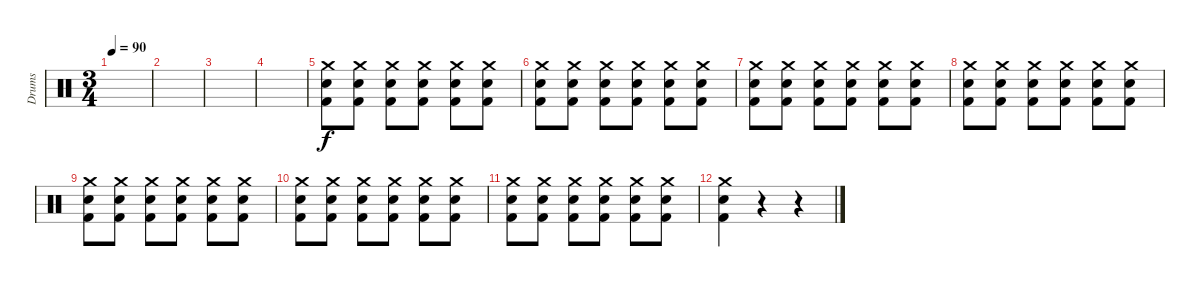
\track ("Drums" "Drums") {instrument percussion}
\staff {score}
\articulation defaults
\ts (3 4)
\tempo 90
\clef neutral
\ks c
|
|
|
|
("Electric Snare (hit)" "Kick (hit) 2" "Crash medium (hit)").8{volume 7} ("Electric Snare (hit)" "Kick (hit) 2" "Crash medium (hit)").8{volume 13} ("Electric Snare (hit)" "Kick (hit) 2" "Crash medium (hit)").8 ("Electric Snare (hit)" "Kick (hit) 2" "Crash medium (hit)").8 ("Electric Snare (hit)" "Kick (hit) 2" "Crash medium (hit)").8 ("Electric Snare (hit)" "Kick (hit) 2" "Crash medium (hit)").8 |
("Electric Snare (hit)" "Kick (hit) 2" "Crash medium (hit)").8 ("Electric Snare (hit)" "Kick (hit) 2" "Crash medium (hit)").8 ("Electric Snare (hit)" "Kick (hit) 2" "Crash medium (hit)").8 ("Electric Snare (hit)" "Kick (hit) 2" "Crash medium (hit)").8 ("Electric Snare (hit)" "Kick (hit) 2" "Crash medium (hit)").8 ("Electric Snare (hit)" "Kick (hit) 2" "Crash medium (hit)").8 |
("Electric Snare (hit)" "Kick (hit) 2" "Crash medium (hit)").8 ("Electric Snare (hit)" "Kick (hit) 2" "Crash medium (hit)").8 ("Electric Snare (hit)" "Kick (hit) 2" "Crash medium (hit)").8 ("Electric Snare (hit)" "Kick (hit) 2" "Crash medium (hit)").8 ("Electric Snare (hit)" "Kick (hit) 2" "Crash medium (hit)").8 ("Electric Snare (hit)" "Kick (hit) 2" "Crash medium (hit)").8 |
("Electric Snare (hit)" "Kick (hit) 2" "Crash medium (hit)").8 ("Electric Snare (hit)" "Kick (hit) 2" "Crash medium (hit)").8 ("Electric Snare (hit)" "Kick (hit) 2" "Crash medium (hit)").8 ("Electric Snare (hit)" "Kick (hit) 2" "Crash medium (hit)").8 ("Electric Snare (hit)" "Kick (hit) 2" "Crash medium (hit)").8 ("Electric Snare (hit)" "Kick (hit) 2" "Crash medium (hit)").8 |
("Electric Snare (hit)" "Kick (hit) 2" "Crash medium (hit)").8 ("Electric Snare (hit)" "Kick (hit) 2" "Crash medium (hit)").8 ("Electric Snare (hit)" "Kick (hit) 2" "Crash medium (hit)").8 ("Electric Snare (hit)" "Kick (hit) 2" "Crash medium (hit)").8 ("Electric Snare (hit)" "Kick (hit) 2" "Crash medium (hit)").8 ("Electric Snare (hit)" "Kick (hit) 2" "Crash medium (hit)").8 |
("Electric Snare (hit)" "Kick (hit) 2" "Crash medium (hit)").8 ("Electric Snare (hit)" "Kick (hit) 2" "Crash medium (hit)").8 ("Electric Snare (hit)" "Kick (hit) 2" "Crash medium (hit)").8 ("Electric Snare (hit)" "Kick (hit) 2" "Crash medium (hit)").8 ("Electric Snare (hit)" "Kick (hit) 2" "Crash medium (hit)").8 ("Electric Snare (hit)" "Kick (hit) 2" "Crash medium (hit)").8 |
("Electric Snare (hit)" "Kick (hit) 2" "Crash medium (hit)").8 ("Electric Snare (hit)" "Kick (hit) 2" "Crash medium (hit)").8 ("Electric Snare (hit)" "Kick (hit) 2" "Crash medium (hit)").8 ("Electric Snare (hit)" "Kick (hit) 2" "Crash medium (hit)").8 ("Electric Snare (hit)" "Kick (hit) 2" "Crash medium (hit)").8 ("Electric Snare (hit)" "Kick (hit) 2" "Crash medium (hit)").8 |
("Electric Snare (hit)" "Kick (hit) 2" "Crash medium (hit)").4 r.4 r.4
